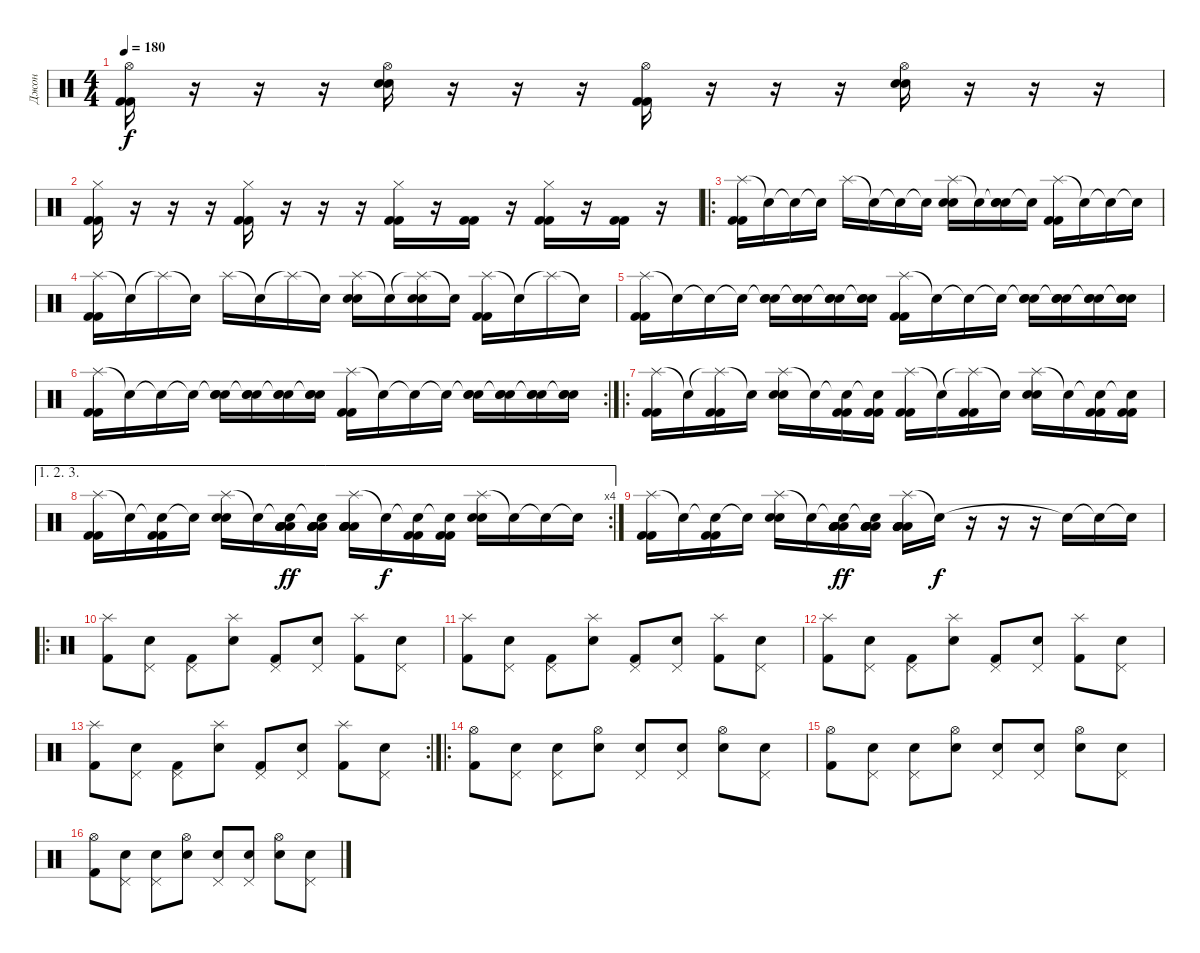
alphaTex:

\track ("Джон" "Джон") {instrument percussion}
\staff {score}
\articulation defaults
\ts (4 4)
\tempo 180
\clef neutral
\ks c
("Hi-Hat (open)" "Kick (hit) 2" "Kick (hit) 2").16{dy f} r.16 r.16 r.16 ("Hi-Hat (open)" "Electric Snare (hit)" "Electric Snare (hit)").16 r.16 r.16 r.16 ("Hi-Hat (open)" "Kick (hit) 2" "Kick (hit) 2").16 r.16 r.16 r.16 ("Hi-Hat (open)" "Electric Snare (hit)" "Electric Snare (hit)").16 r.16 r.16 r.16 |
("Hi-Hat (closed)" "Kick (hit) 2" "Kick (hit) 2").16 r.16 r.16 r.16 ("Hi-Hat (closed)" "Kick (hit) 2" "Kick (hit) 2").16 r.16 r.16 r.16 ("Hi-Hat (closed)" "Kick (hit) 2" "Kick (hit) 2").16 r.16 ("Kick (hit) 2" "Kick (hit) 2").16 r.16 ("Hi-Hat (closed)" "Kick (hit) 2" "Kick (hit) 2").16 r.16 ("Kick (hit) 2" "Kick (hit) 2").16 r.16 |
\ro
("Splash (hit)" "Kick (hit) 2" "Kick (hit) 2").16 "Snare (hit)"{t}.16 "Snare (hit)"{t}.16 "Snare (hit)"{t}.16 "Splash (hit)".16 "Snare (hit)"{t}.16 "Snare (hit)"{t}.16 "Snare (hit)"{t}.16 ("Splash (hit)" "Electric Snare (hit)" "Electric Snare (hit)").16 "Snare (hit)"{t}.16 ("Snare (hit)"{t} "Electric Snare (hit)" "Electric Snare (hit)").16 "Snare (hit)"{t}.16 ("Splash (hit)" "Kick (hit) 2" "Kick (hit) 2").16 "Snare (hit)"{t}.16 "Snare (hit)"{t}.16 "Snare (hit)"{t}.16 |
("Splash (hit)" "Kick (hit) 2" "Kick (hit) 2").16 "Snare (hit)"{t}.16 "Splash (hit)"{t}.16 "Snare (hit)"{t}.16 "Splash (hit)".16 "Snare (hit)"{t}.16 "Splash (hit)"{t}.16 "Snare (hit)"{t}.16 ("Splash (hit)" "Electric Snare (hit)" "Electric Snare (hit)").16 "Snare (hit)"{t}.16 ("Splash (hit)"{t} "Electric Snare (hit)" "Electric Snare (hit)").16 "Snare (hit)"{t}.16 ("Splash (hit)" "Kick (hit) 2" "Kick (hit) 2").16 "Snare (hit)"{t}.16 "Splash (hit)"{t}.16 "Snare (hit)"{t}.16 |
("Splash (hit)" "Kick (hit) 2" "Kick (hit) 2").16 "Snare (hit)"{t}.16 "Snare (hit)"{t}.16 "Snare (hit)"{t}.16 ("Snare (hit)"{t} "Electric Snare (hit)" "Electric Snare (hit)").16 ("Snare (hit)"{t} "Electric Snare (hit)" "Electric Snare (hit)").16 ("Snare (hit)"{t} "Electric Snare (hit)" "Electric Snare (hit)").16 ("Snare (hit)"{t} "Electric Snare (hit)" "Electric Snare (hit)").16 ("Splash (hit)" "Kick (hit) 2" "Kick (hit) 2").16 "Snare (hit)"{t}.16 "Snare (hit)"{t}.16 "Snare (hit)"{t}.16 ("Snare (hit)"{t} "Electric Snare (hit)" "Electric Snare (hit)").16 ("Snare (hit)"{t} "Electric Snare (hit)" "Electric Snare (hit)").16 ("Snare (hit)"{t} "Electric Snare (hit)" "Electric Snare (hit)").16 ("Snare (hit)"{t} "Electric Snare (hit)" "Electric Snare (hit)").16 |
\rc 2
("Splash (hit)" "Kick (hit) 2" "Kick (hit) 2").16 "Snare (hit)"{t}.16 "Snare (hit)"{t}.16 "Snare (hit)"{t}.16 ("Snare (hit)"{t} "Electric Snare (hit)" "Electric Snare (hit)").16 ("Snare (hit)"{t} "Electric Snare (hit)" "Electric Snare (hit)").16 ("Snare (hit)"{t} "Electric Snare (hit)" "Electric Snare (hit)").16 ("Snare (hit)"{t} "Electric Snare (hit)" "Electric Snare (hit)").16 ("Splash (hit)" "Kick (hit) 2" "Kick (hit) 2").16 "Snare (hit)"{t}.16 "Snare (hit)"{t}.16 "Snare (hit)"{t}.16 ("Snare (hit)"{t} "Electric Snare (hit)" "Electric Snare (hit)").16 ("Snare (hit)"{t} "Electric Snare (hit)" "Electric Snare (hit)").16 ("Snare (hit)"{t} "Electric Snare (hit)" "Electric Snare (hit)").16 ("Snare (hit)"{t} "Electric Snare (hit)" "Electric Snare (hit)").16 |
\ro
("Splash (hit)" "Kick (hit) 2" "Kick (hit) 2").16 "Snare (hit)"{t}.16 ("Splash (hit)"{t} "Kick (hit) 2" "Kick (hit) 2").16 "Snare (hit)"{t}.16 ("Splash (hit)" "Electric Snare (hit)" "Electric Snare (hit)").16 "Snare (hit)"{t}.16 ("Snare (hit)"{t} "Kick (hit) 2" "Kick (hit) 2").16 ("Snare (hit)"{t} "Kick (hit) 2" "Kick (hit) 2").16 ("Splash (hit)" "Kick (hit) 2" "Kick (hit) 2").16 "Snare (hit)"{t}.16 ("Splash (hit)"{t} "Kick (hit) 2" "Kick (hit) 2").16 "Snare (hit)"{t}.16 ("Splash (hit)" "Electric Snare (hit)" "Electric Snare (hit)").16 "Snare (hit)"{t}.16 ("Snare (hit)"{t} "Kick (hit) 2" "Kick (hit) 2").16 ("Snare (hit)"{t} "Kick (hit) 2" "Kick (hit) 2").16 |
\ae (1 2 3)
\rc 4
("Splash (hit)" "Kick (hit) 2" "Kick (hit) 2").16 "Snare (hit)"{t}.16 ("Snare (hit)"{t} "Kick (hit) 2" "Kick (hit) 2").16 "Snare (hit)"{t}.16 ("Splash (hit)" "Electric Snare (hit)" "Electric Snare (hit)").16 "Snare (hit)"{t}.16 ("Snare (hit)"{t} "Low Tom (hit)" "Low Tom (hit)" "Low Tom (hit)" "Low Tom (hit)" "Low Tom (hit)").16{dy ff} ("Snare (hit)"{t} "Low Tom (hit)" "Low Tom (hit)" "Low Tom (hit)" "Low Tom (hit)" "Low Tom (hit)").16 ("Splash (hit)" "Low Tom (hit)" "Low Tom (hit)" "Low Tom (hit)" "Low Tom (hit)" "Low Tom (hit)").16 "Snare (hit)"{t}.16{dy f} ("Snare (hit)"{t} "Kick (hit) 2" "Kick (hit) 2").16 ("Snare (hit)"{t} "Kick (hit) 2" "Kick (hit) 2").16 ("Splash (hit)" "Electric Snare (hit)" "Electric Snare (hit)").16 "Snare (hit)"{t}.16 "Snare (hit)"{t}.16 "Snare (hit)"{t}.16 |
("Splash (hit)" "Kick (hit) 2" "Kick (hit) 2").16 "Snare (hit)"{t}.16 ("Snare (hit)"{t} "Kick (hit) 2" "Kick (hit) 2").16 "Snare (hit)"{t}.16 ("Splash (hit)" "Electric Snare (hit)" "Electric Snare (hit)").16 "Snare (hit)"{t}.16 ("Snare (hit)"{t} "Low Tom (hit)" "Low Tom (hit)" "Low Tom (hit)" "Low Tom (hit)" "Low Tom (hit)").16{dy ff} ("Snare (hit)"{t} "Low Tom (hit)" "Low Tom (hit)" "Low Tom (hit)" "Low Tom (hit)" "Low Tom (hit)").16 ("Splash (hit)" "Low Tom (hit)" "Low Tom (hit)" "Low Tom (hit)" "Low Tom (hit)" "Low Tom (hit)").16 "Snare (hit)"{t}.16{dy f} r.16 r.16 r.16 "Snare (hit)"{t}.16 "Snare (hit)"{t}.16 "Snare (hit)"{t}.16 |
\ro
("Kick (hit) 2" "Splash (hit)").8 ("Snare (hit)" "Pedal Hi-Hat (hit)").8 ("Kick (hit) 2" "Pedal Hi-Hat (hit)").8 ("Snare (hit)" "Splash (hit)").8 ("Kick (hit) 2" "Pedal Hi-Hat (hit)").8 ("Snare (hit)" "Pedal Hi-Hat (hit)").8 ("Kick (hit) 2" "Splash (hit)").8 ("Snare (hit)" "Pedal Hi-Hat (hit)").8 |
("Kick (hit) 2" "Splash (hit)").8 ("Snare (hit)" "Pedal Hi-Hat (hit)").8 ("Kick (hit) 2" "Pedal Hi-Hat (hit)").8 ("Snare (hit)" "Splash (hit)").8 ("Kick (hit) 2" "Pedal Hi-Hat (hit)").8 ("Snare (hit)" "Pedal Hi-Hat (hit)").8 ("Kick (hit) 2" "Splash (hit)").8 ("Snare (hit)" "Pedal Hi-Hat (hit)").8 |
("Kick (hit) 2" "Splash (hit)").8 ("Snare (hit)" "Pedal Hi-Hat (hit)").8 ("Kick (hit) 2" "Pedal Hi-Hat (hit)").8 ("Snare (hit)" "Splash (hit)").8 ("Kick (hit) 2" "Pedal Hi-Hat (hit)").8 ("Snare (hit)" "Pedal Hi-Hat (hit)").8 ("Kick (hit) 2" "Splash (hit)").8 ("Snare (hit)" "Pedal Hi-Hat (hit)").8 |
\rc 2
("Kick (hit) 2" "Splash (hit)").8 ("Snare (hit)" "Pedal Hi-Hat (hit)").8 ("Kick (hit) 2" "Pedal Hi-Hat (hit)").8 ("Snare (hit)" "Splash (hit)").8 ("Kick (hit) 2" "Pedal Hi-Hat (hit)").8 ("Snare (hit)" "Pedal Hi-Hat (hit)").8 ("Kick (hit) 2" "Splash (hit)").8 ("Snare (hit)" "Pedal Hi-Hat (hit)").8 |
\ro
("Kick (hit) 2" "Hi-Hat (open)").8 ("Snare (hit)" "Pedal Hi-Hat (hit)").8 ("Snare (hit)" "Pedal Hi-Hat (hit)").8 ("Snare (hit)" "Hi-Hat (open)").8 ("Electric Snare (hit)" "Pedal Hi-Hat (hit)").8 ("Snare (hit)" "Pedal Hi-Hat (hit)").8 ("Snare (hit)" "Hi-Hat (open)").8 ("Snare (hit)" "Pedal Hi-Hat (hit)").8 |
("Kick (hit) 2" "Hi-Hat (open)").8 ("Snare (hit)" "Pedal Hi-Hat (hit)").8 ("Snare (hit)" "Pedal Hi-Hat (hit)").8 ("Snare (hit)" "Hi-Hat (open)").8 ("Electric Snare (hit)" "Pedal Hi-Hat (hit)").8 ("Snare (hit)" "Pedal Hi-Hat (hit)").8 ("Snare (hit)" "Hi-Hat (open)").8 ("Snare (hit)" "Pedal Hi-Hat (hit)").8 |
("Kick (hit) 2" "Hi-Hat (open)").8 ("Snare (hit)" "Pedal Hi-Hat (hit)").8 ("Snare (hit)" "Pedal Hi-Hat (hit)").8 ("Snare (hit)" "Hi-Hat (open)").8 ("Electric Snare (hit)" "Pedal Hi-Hat (hit)").8 ("Snare (hit)" "Pedal Hi-Hat (hit)").8 ("Snare (hit)" "Hi-Hat (open)").8 ("Snare (hit)" "Pedal Hi-Hat (hit)").8
